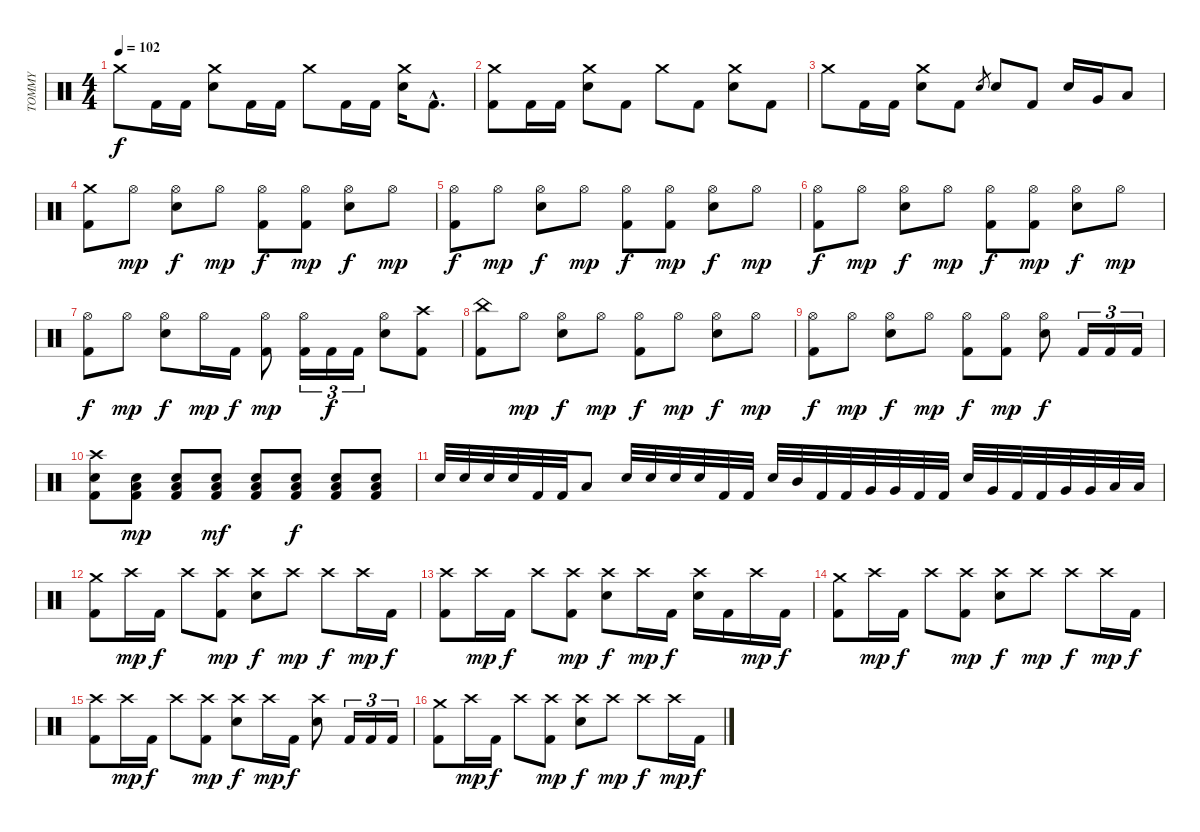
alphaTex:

\track ("TOMMY" "TOMMY") {instrument percussion}
\staff {score}
\articulation defaults
\ts (4 4)
\tempo 102
\clef neutral
\ks c "Crash medium (hit)".8{dy f} "Kick (hit) 2".16 "Kick (hit) 2".16
("Snare (hit) 2" "Crash medium (hit)").8 "Kick (hit) 2".16 "Kick (hit) 2".16 "Crash medium (hit)".8 "Kick (hit) 2".16 "Kick (hit) 2".16 ("Snare (hit) 2" "Crash medium (hit)").16 "Kick (hit) 2"{hac}.8{d} |
("Kick (hit) 2" "Crash medium (hit)").8 "Kick (hit) 2".16 "Kick (hit) 2".16 ("Snare (hit) 2" "Crash medium (hit)").8 "Kick (hit) 2".8 "Crash medium (hit)".8 "Kick (hit) 2".8 ("Snare (hit) 2" "Crash medium (hit)").8 "Kick (hit) 2".8 |
"Crash medium (hit)".8 "Kick (hit) 2".16 "Kick (hit) 2".16 ("Snare (hit) 2" "Crash medium (hit)").8 "Kick (hit) 2".8 "Snare (hit) 2".8{gr} "Snare (hit) 2".8 "Kick (hit) 2".8 "Snare (hit) 2".16 "Very Low Tom (hit)".16 "Low Floor Tom (hit)".8 |
("Kick (hit) 2" "Crash medium (hit)").8 "Hi-Hat (open)".8{dy mp} ("Snare (hit) 2" "Hi-Hat (open)").8{dy f} "Hi-Hat (open)".8{dy mp} ("Kick (hit) 2" "Hi-Hat (open)").8{dy f} ("Kick (hit) 2" "Hi-Hat (open)").8{dy mp} ("Snare (hit) 2" "Hi-Hat (open)").8{dy f} "Hi-Hat (open)".8{dy mp} |
("Kick (hit) 2" "Hi-Hat (open)").8{dy f} "Hi-Hat (open)".8{dy mp} ("Snare (hit) 2" "Hi-Hat (open)").8{dy f} "Hi-Hat (open)".8{dy mp} ("Kick (hit) 2" "Hi-Hat (open)").8{dy f} ("Kick (hit) 2" "Hi-Hat (open)").8{dy mp} ("Snare (hit) 2" "Hi-Hat (open)").8{dy f} "Hi-Hat (open)".8{dy mp} |
("Kick (hit) 2" "Hi-Hat (open)").8{dy f} "Hi-Hat (open)".8{dy mp} ("Snare (hit) 2" "Hi-Hat (open)").8{dy f} "Hi-Hat (open)".8{dy mp} ("Kick (hit) 2" "Hi-Hat (open)").8{dy f} ("Kick (hit) 2" "Hi-Hat (open)").8{dy mp} ("Snare (hit) 2" "Hi-Hat (open)").8{dy f} "Hi-Hat (open)".8{dy mp} |
("Kick (hit) 2" "Hi-Hat (open)").8{dy f} "Hi-Hat (open)".8{dy mp} ("Snare (hit) 2" "Hi-Hat (open)").8{dy f} "Hi-Hat (open)".16{dy mp} "Kick (hit) 2".16{dy f} ("Kick (hit) 2" "Hi-Hat (open)").8{dy mp} ("Kick (hit) 2" "Hi-Hat (open)").16{tu (3 2)} "Kick (hit) 2".16{tu (3 2) dy f} "Kick (hit) 2".16{tu (3 2)} ("Snare (hit) 2" "Hi-Hat (open)").8 ("Kick (hit) 2" "Crash high (hit)").8 |
("Kick (hit) 2" "China (hit)").8 "Hi-Hat (open)".8{dy mp} ("Snare (hit) 2" "Hi-Hat (open)").8{dy f} "Hi-Hat (open)".8{dy mp} ("Kick (hit) 2" "Hi-Hat (open)").8{dy f} "Hi-Hat (open)".8{dy mp} ("Snare (hit) 2" "Hi-Hat (open)").8{dy f} "Hi-Hat (open)".8{dy mp} |
("Kick (hit) 2" "Hi-Hat (open)").8{dy f} "Hi-Hat (open)".8{dy mp} ("Snare (hit) 2" "Hi-Hat (open)").8{dy f} "Hi-Hat (open)".8{dy mp} ("Kick (hit) 2" "Hi-Hat (open)").8{dy f} ("Kick (hit) 2" "Hi-Hat (open)").8{dy mp} ("Snare (hit) 2" "Hi-Hat (open)").8{dy f} "Kick (hit) 2".16{tu (3 2)} "Kick (hit) 2".16{tu (3 2)} "Kick (hit) 2".16{tu (3 2)} |
("Snare (hit) 2" "Kick (hit) 2" "Crash high (hit)").8 ("Snare (hit) 2" "Kick (hit) 2" "Low Floor Tom (hit)").8{dy mp} ("Snare (hit) 2" "Kick (hit) 2" "Low Floor Tom (hit)").8 ("Snare (hit) 2" "Kick (hit) 2" "Low Floor Tom (hit)").8{dy mf} ("Snare (hit) 2" "Kick (hit) 2" "Low Floor Tom (hit)").8 ("Snare (hit) 2" "Kick (hit) 2" "Low Floor Tom (hit)").8{dy f} ("Snare (hit) 2" "Kick (hit) 2" "Low Floor Tom (hit)").8 ("Snare (hit) 2" "Kick (hit) 2" "Low Floor Tom (hit)").8 |
"Snare (hit) 2".32 "Snare (hit) 2".32 "Snare (hit) 2".32 "Snare (hit) 2".32 "Kick (hit) 2".32 "Kick (hit) 2".32 "Low Floor Tom (hit)".8 "Snare (hit) 2".32 "Snare (hit) 2".32 "Snare (hit) 2".32 "Snare (hit) 2".32 "Kick (hit) 2".32 "Kick (hit) 2".32 "Snare (hit) 2".32 "Mid Tom (hit)".32 "Kick (hit) 2".32 "Kick (hit) 2".32 "Very Low Tom (hit)".32 "Very Low Tom (hit)".32 "Kick (hit) 2".32 "Kick (hit) 2".32 "Snare (hit) 2".32 "Very Low Tom (hit)".32 "Kick (hit) 2".32 "Kick (hit) 2".32 "Very Low Tom (hit)".32 "Very Low Tom (hit)".32 "Low Floor Tom (hit)".32 "Low Floor Tom (hit)".32 |
("Kick (hit) 2" "Crash medium (hit)").8 "Crash high (hit)".16{dy mp} "Kick (hit) 2".16{dy f} "Crash high (hit)".8 ("Kick (hit) 2" "Crash high (hit)").8{dy mp} ("Snare (hit) 2" "Crash high (hit)").8{dy f} "Crash high (hit)".8{dy mp} "Crash high (hit)".8{dy f} "Crash high (hit)".16{dy mp} "Kick (hit) 2".16{dy f} |
("Kick (hit) 2" "Crash high (hit)").8 "Crash high (hit)".16{dy mp} "Kick (hit) 2".16{dy f} "Crash high (hit)".8 ("Kick (hit) 2" "Crash high (hit)").8{dy mp} ("Snare (hit) 2" "Crash high (hit)").8{dy f} "Crash high (hit)".16{dy mp} "Kick (hit) 2".16{dy f} ("Snare (hit) 2" "Crash high (hit)").16 "Kick (hit) 2".16 "Crash high (hit)".16{dy mp} "Kick (hit) 2".16{dy f} |
("Kick (hit) 2" "Crash medium (hit)").8 "Crash high (hit)".16{dy mp} "Kick (hit) 2".16{dy f} "Crash high (hit)".8 ("Kick (hit) 2" "Crash high (hit)").8{dy mp} ("Snare (hit) 2" "Crash high (hit)").8{dy f} "Crash high (hit)".8{dy mp} "Crash high (hit)".8{dy f} "Crash high (hit)".16{dy mp} "Kick (hit) 2".16{dy f} |
("Kick (hit) 2" "Crash high (hit)").8 "Crash high (hit)".16{dy mp} "Kick (hit) 2".16{dy f} "Crash high (hit)".8 ("Kick (hit) 2" "Crash high (hit)").8{dy mp} ("Snare (hit) 2" "Crash high (hit)").8{dy f} "Crash high (hit)".16{dy mp} "Kick (hit) 2".16{dy f} ("Snare (hit) 2" "Crash high (hit)").8 "Kick (hit) 2".16{tu (3 2)} "Kick (hit) 2".16{tu (3 2)} "Kick (hit) 2".16{tu (3 2)} |
("Kick (hit) 2" "Crash medium (hit)").8 "Crash high (hit)".16{dy mp} "Kick (hit) 2".16{dy f} "Crash high (hit)".8 ("Kick (hit) 2" "Crash high (hit)").8{dy mp} ("Snare (hit) 2" "Crash high (hit)").8{dy f} "Crash high (hit)".8{dy mp} "Crash high (hit)".8{dy f} "Crash high (hit)".16{dy mp} "Kick (hit) 2".16{dy f}
